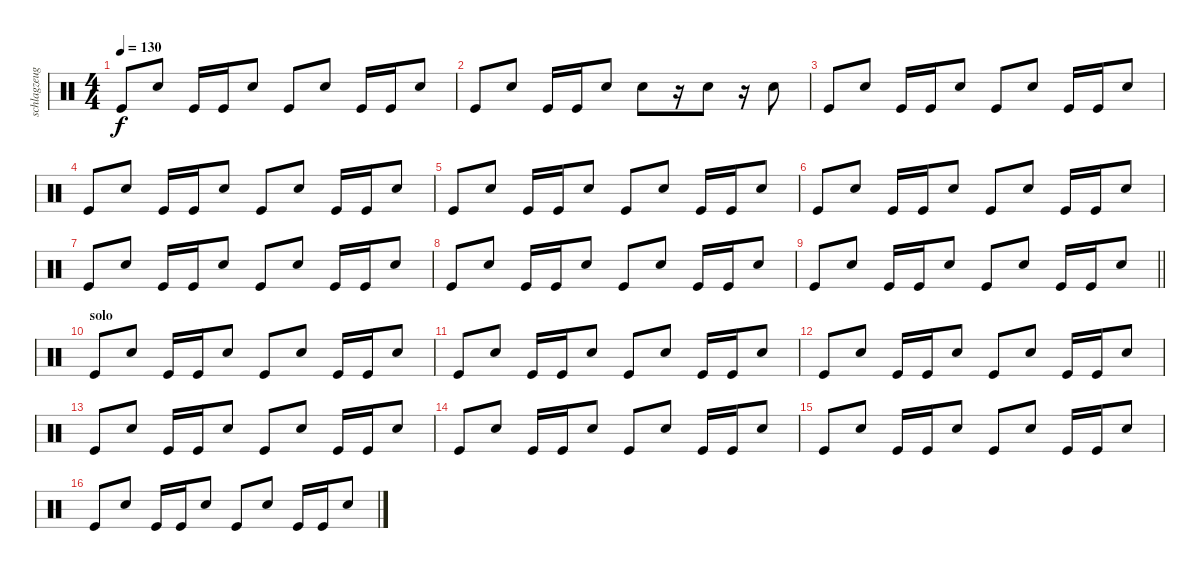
\track ("schlagzeug" "schlagzeug") {instrument percussion}
\staff {score}
\articulation defaults
\ts (4 4)
\tempo 130
\clef neutral
\ks c "Kick (hit)".8{dy f} "Snare (hit) 2".8 "Kick (hit)".16 "Kick (hit)".16 "Snare (hit) 2".8 "Kick (hit)".8 "Snare (hit) 2".8 "Kick (hit)".16 "Kick (hit)".16 "Snare (hit) 2".8
|
"Kick (hit)".8 "Snare (hit) 2".8 "Kick (hit)".16 "Kick (hit)".16 "Snare (hit) 2".8 "Snare (hit) 2".8 r.16 "Snare (hit) 2".8 r.16 "Snare (hit) 2".8 |
"Kick (hit)".8 "Snare (hit) 2".8 "Kick (hit)".16 "Kick (hit)".16 "Snare (hit) 2".8 "Kick (hit)".8 "Snare (hit) 2".8 "Kick (hit)".16 "Kick (hit)".16 "Snare (hit) 2".8 |
"Kick (hit)".8 "Snare (hit) 2".8 "Kick (hit)".16 "Kick (hit)".16 "Snare (hit) 2".8 "Kick (hit)".8 "Snare (hit) 2".8 "Kick (hit)".16 "Kick (hit)".16 "Snare (hit) 2".8 |
"Kick (hit)".8 "Snare (hit) 2".8 "Kick (hit)".16 "Kick (hit)".16 "Snare (hit) 2".8 "Kick (hit)".8 "Snare (hit) 2".8 "Kick (hit)".16 "Kick (hit)".16 "Snare (hit) 2".8 |
"Kick (hit)".8 "Snare (hit) 2".8 "Kick (hit)".16 "Kick (hit)".16 "Snare (hit) 2".8 "Kick (hit)".8 "Snare (hit) 2".8 "Kick (hit)".16 "Kick (hit)".16 "Snare (hit) 2".8 |
"Kick (hit)".8 "Snare (hit) 2".8 "Kick (hit)".16 "Kick (hit)".16 "Snare (hit) 2".8 "Kick (hit)".8 "Snare (hit) 2".8 "Kick (hit)".16 "Kick (hit)".16 "Snare (hit) 2".8 |
"Kick (hit)".8 "Snare (hit) 2".8 "Kick (hit)".16 "Kick (hit)".16 "Snare (hit) 2".8 "Kick (hit)".8 "Snare (hit) 2".8 "Kick (hit)".16 "Kick (hit)".16 "Snare (hit) 2".8 |
\barLineRight lightlight "Kick (hit)".8 "Snare (hit) 2".8 "Kick (hit)".16 "Kick (hit)".16 "Snare (hit) 2".8 "Kick (hit)".8 "Snare (hit) 2".8 "Kick (hit)".16 "Kick (hit)".16 "Snare (hit) 2".8
|
\section ("" "solo")
"Kick (hit)".8 "Snare (hit) 2".8 "Kick (hit)".16 "Kick (hit)".16 "Snare (hit) 2".8 "Kick (hit)".8 "Snare (hit) 2".8 "Kick (hit)".16 "Kick (hit)".16 "Snare (hit) 2".8 |
"Kick (hit)".8 "Snare (hit) 2".8 "Kick (hit)".16 "Kick (hit)".16 "Snare (hit) 2".8 "Kick (hit)".8 "Snare (hit) 2".8 "Kick (hit)".16 "Kick (hit)".16 "Snare (hit) 2".8 |
"Kick (hit)".8 "Snare (hit) 2".8 "Kick (hit)".16 "Kick (hit)".16 "Snare (hit) 2".8 "Kick (hit)".8 "Snare (hit) 2".8 "Kick (hit)".16 "Kick (hit)".16 "Snare (hit) 2".8 |
"Kick (hit)".8 "Snare (hit) 2".8 "Kick (hit)".16 "Kick (hit)".16 "Snare (hit) 2".8 "Kick (hit)".8 "Snare (hit) 2".8 "Kick (hit)".16 "Kick (hit)".16 "Snare (hit) 2".8 |
"Kick (hit)".8 "Snare (hit) 2".8 "Kick (hit)".16 "Kick (hit)".16 "Snare (hit) 2".8 "Kick (hit)".8 "Snare (hit) 2".8 "Kick (hit)".16 "Kick (hit)".16 "Snare (hit) 2".8 |
"Kick (hit)".8 "Snare (hit) 2".8 "Kick (hit)".16 "Kick (hit)".16 "Snare (hit) 2".8 "Kick (hit)".8 "Snare (hit) 2".8 "Kick (hit)".16 "Kick (hit)".16 "Snare (hit) 2".8 |
"Kick (hit)".8 "Snare (hit) 2".8 "Kick (hit)".16 "Kick (hit)".16 "Snare (hit) 2".8 "Kick (hit)".8 "Snare (hit) 2".8 "Kick (hit)".16 "Kick (hit)".16 "Snare (hit) 2".8
